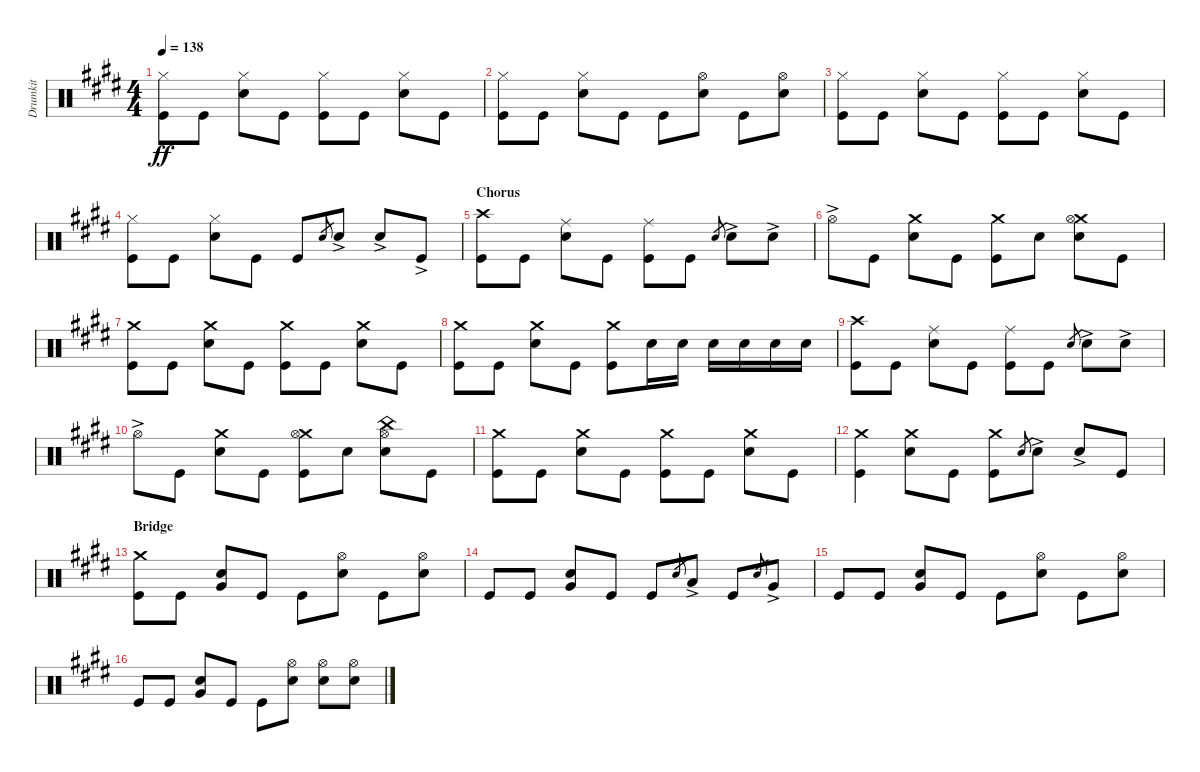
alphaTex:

\track ("Drumkit" "Drumkit") {instrument percussion}
\staff {score}
\articulation defaults
\ts (4 4)
\tempo 138
\clef neutral
\ks c#minor
("Kick (hit)" "Hi-Hat (closed)").8{dy ff} "Kick (hit)".8 ("Snare (hit) 2" "Hi-Hat (closed)").8 "Kick (hit)".8 ("Kick (hit)" "Hi-Hat (closed)").8 "Kick (hit)".8 ("Snare (hit) 2" "Hi-Hat (closed)").8 "Kick (hit)".8 |
("Kick (hit)" "Hi-Hat (closed)").8 "Kick (hit)".8 ("Snare (hit) 2" "Hi-Hat (closed)").8 "Kick (hit)".8 "Kick (hit)".8 ("Snare (hit) 2" "Hi-Hat (open)").8 "Kick (hit)".8 ("Snare (hit) 2" "Hi-Hat (open)").8 |
("Kick (hit)" "Hi-Hat (closed)").8 "Kick (hit)".8 ("Snare (hit) 2" "Hi-Hat (closed)").8 "Kick (hit)".8 ("Kick (hit)" "Hi-Hat (closed)").8 "Kick (hit)".8 ("Snare (hit) 2" "Hi-Hat (closed)").8 "Kick (hit)".8 |
("Kick (hit)" "Hi-Hat (closed)").8 "Kick (hit)".8 ("Snare (hit) 2" "Hi-Hat (closed)").8 "Kick (hit)".8 "Kick (hit)".8 "Snare (hit)".8{gr} "Snare (hit) 2"{ac}.8 "Snare (hit) 2"{ac}.8 "Kick (hit)"{ac}.8 |
\section ("" "Chorus")
("Kick (hit)" "Crash high (hit)").8 "Kick (hit)".8 ("Snare (hit) 2" "Ride (middle)").8 "Kick (hit)".8 ("Kick (hit)" "Ride (middle)").8 "Kick (hit)".8 "Snare (hit)".8{gr} "Snare (hit) 2"{ac}.8 "Snare (hit) 2"{ac}.8 |
"Hi-Hat (open)"{ac}.8 "Kick (hit)".8 ("Snare (hit) 2" "Crash medium (hit)").8 "Kick (hit)".8 ("Kick (hit)" "Crash medium (hit)").8 "Snare (hit) 2".8 ("Snare (hit) 2" "Crash medium (hit)" "Hi-Hat (open)").8 "Kick (hit)".8 |
("Kick (hit)" "Crash medium (hit)").8 "Kick (hit)".8 ("Snare (hit) 2" "Crash medium (hit)").8 "Kick (hit)".8 ("Kick (hit)" "Crash medium (hit)").8 "Kick (hit)".8 ("Snare (hit) 2" "Crash medium (hit)").8 "Kick (hit)".8 |
("Kick (hit)" "Crash medium (hit)").8 "Kick (hit)".8 ("Snare (hit) 2" "Crash medium (hit)").8 "Kick (hit)".8 ("Kick (hit)" "Crash medium (hit)").8 "Snare (hit) 2".16 "Snare (hit) 2".16 "Snare (hit) 2".16 "Snare (hit) 2".16 "Snare (hit) 2".16 "Snare (hit) 2".16 |
("Kick (hit)" "Crash high (hit)").8 "Kick (hit)".8 ("Snare (hit) 2" "Ride (middle)").8 "Kick (hit)".8 ("Kick (hit)" "Ride (middle)").8 "Kick (hit)".8 "Snare (hit)".8{gr} "Snare (hit) 2"{ac}.8 "Snare (hit) 2"{ac}.8 |
"Hi-Hat (open)"{ac}.8 "Kick (hit)".8 ("Snare (hit) 2" "Crash medium (hit)").8 "Kick (hit)".8 ("Kick (hit)" "Crash medium (hit)" "Hi-Hat (open)").8 "Snare (hit) 2".8 ("Snare (hit) 2" "Hi-Hat (open)" "China (hit)").8 "Kick (hit)".8 |
("Kick (hit)" "Crash medium (hit)").8 "Kick (hit)".8 ("Snare (hit) 2" "Crash medium (hit)").8 "Kick (hit)".8 ("Kick (hit)" "Crash medium (hit)").8 "Kick (hit)".8 ("Snare (hit) 2" "Crash medium (hit)").8 "Kick (hit)".8 |
("Kick (hit)" "Crash medium (hit)").4 ("Snare (hit) 2" "Crash medium (hit)").8 "Kick (hit)".8 ("Kick (hit)" "Crash medium (hit)").8 "Snare (hit)".8{gr} "Snare (hit) 2"{ac}.8 "Snare (hit) 2"{ac}.8 "Kick (hit)".8 |
\section ("" "Bridge")
("Kick (hit)" "Crash medium (hit)").8 "Kick (hit)".8 ("Snare (hit) 2" "Very Low Tom (hit)").8 "Kick (hit)".8 "Kick (hit)".8 ("Snare (hit) 2" "Hi-Hat (open)").8 "Kick (hit)".8 ("Snare (hit) 2" "Hi-Hat (open)").8 |
"Kick (hit)".8 "Kick (hit)".8 ("Snare (hit) 2" "Very Low Tom (hit)").8 "Kick (hit)".8 "Kick (hit)".8 "Snare (hit)".8{gr} "Low Tom (hit)"{ac}.8 "Kick (hit)".8 "Snare (hit)".8{gr} "Very Low Tom (hit)"{ac}.8 |
"Kick (hit)".8 "Kick (hit)".8 ("Snare (hit) 2" "Very Low Tom (hit)").8 "Kick (hit)".8 "Kick (hit)".8 ("Snare (hit) 2" "Hi-Hat (open)").8 "Kick (hit)".8 ("Snare (hit) 2" "Hi-Hat (open)").8 |
"Kick (hit)".8 "Kick (hit)".8 ("Snare (hit) 2" "Very Low Tom (hit)").8 "Kick (hit)".8 "Kick (hit)".8 ("Snare (hit) 2" "Hi-Hat (open)").8 ("Snare (hit) 2" "Hi-Hat (open)").8 ("Snare (hit) 2" "Hi-Hat (open)").8
